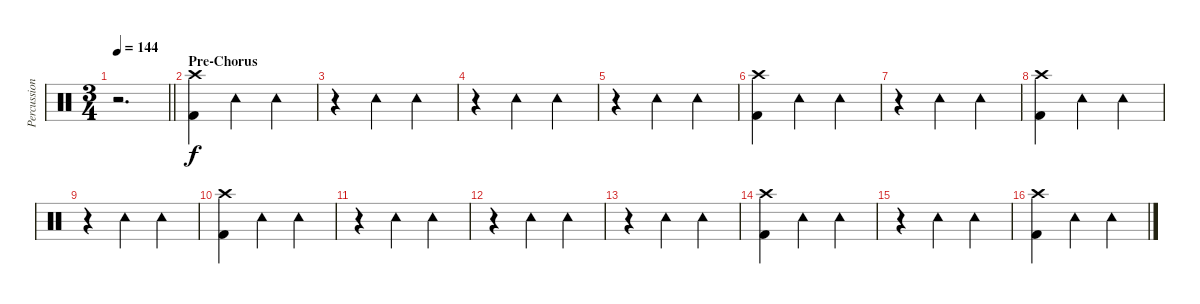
\track ("Percussion" "Percussion") {instrument percussion}
\staff {score}
\articulation defaults
\ts (3 4)
\tempo 144
\clef neutral
\barLineRight lightlight
\ks c
r.2{d dy f} |
\section ("" "Pre-Chorus")
("Crash high (hit)" "Kick (hit) 2").4 "Tambourine (hit)".4 "Tambourine (hit)".4 |
r.4 "Tambourine (hit)".4 "Tambourine (hit)".4 |
r.4 "Tambourine (hit)".4 "Tambourine (hit)".4 |
r.4 "Tambourine (hit)".4 "Tambourine (hit)".4 |
("Crash high (hit)" "Kick (hit) 2").4 "Tambourine (hit)".4 "Tambourine (hit)".4 |
r.4 "Tambourine (hit)".4 "Tambourine (hit)".4 |
("Crash high (hit)" "Kick (hit) 2").4 "Tambourine (hit)".4 "Tambourine (hit)".4 |
r.4 "Tambourine (hit)".4 "Tambourine (hit)".4 |
("Crash high (hit)" "Kick (hit) 2").4 "Tambourine (hit)".4 "Tambourine (hit)".4 |
r.4 "Tambourine (hit)".4 "Tambourine (hit)".4 |
r.4 "Tambourine (hit)".4 "Tambourine (hit)".4 |
r.4 "Tambourine (hit)".4 "Tambourine (hit)".4 |
("Crash high (hit)" "Kick (hit) 2").4 "Tambourine (hit)".4 "Tambourine (hit)".4 |
r.4 "Tambourine (hit)".4 "Tambourine (hit)".4 |
("Crash high (hit)" "Kick (hit) 2").4 "Tambourine (hit)".4 "Tambourine (hit)".4
